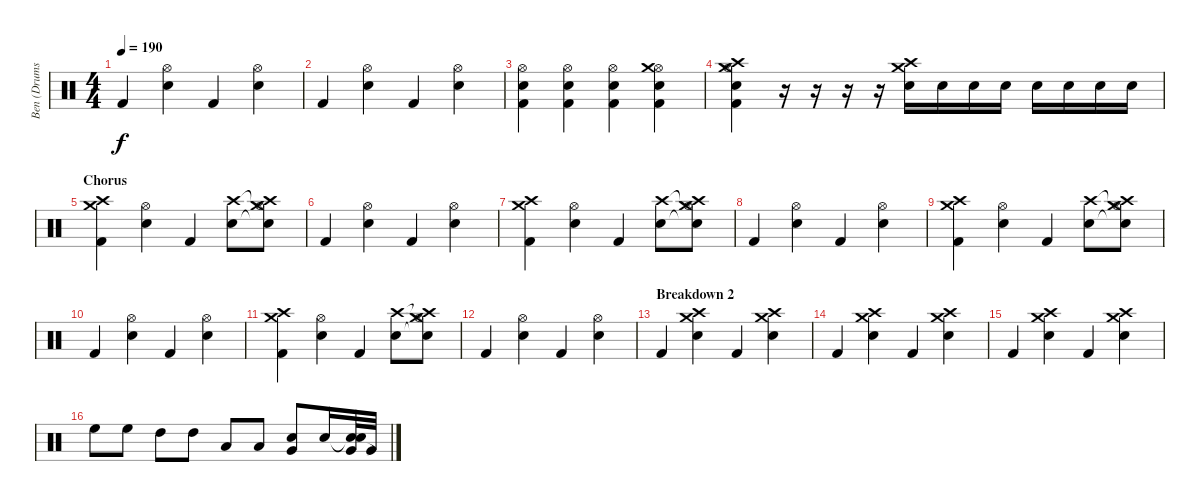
\track ("Ben (Drums)" "Ben (Drums") {instrument percussion}
\staff {score}
\articulation defaults
\ts (4 4)
\tempo 190
\clef neutral
\ks c "Kick (hit) 2".4{dy f}
("Snare (hit) 2" "Hi-Hat (open)").4 "Kick (hit) 2".4 ("Snare (hit) 2" "Hi-Hat (open)").4 |
"Kick (hit) 2".4 ("Snare (hit) 2" "Hi-Hat (open)").4 "Kick (hit) 2".4 ("Snare (hit) 2" "Hi-Hat (open)").4 |
("Kick (hit) 2" "Hi-Hat (open)" "Snare (hit) 2").4 ("Snare (hit) 2" "Hi-Hat (open)" "Kick (hit) 2").4 ("Kick (hit) 2" "Hi-Hat (open)" "Snare (hit) 2").4 ("Snare (hit) 2" "Hi-Hat (open)" "Kick (hit) 2" "Crash medium (hit)").4 |
("Kick (hit) 2" "Hi-Hat (open)" "Snare (hit) 2" "Crash medium (hit)" "Crash high (hit)").4{volume 16} r.16 r.16 r.16 r.16 ("Snare (hit) 2" "Crash high (hit)" "Crash medium (hit)").16 "Snare (hit) 2".16 "Snare (hit) 2".16 "Snare (hit) 2".16 "Snare (hit) 2".16 "Snare (hit) 2".16 "Snare (hit) 2".16 "Snare (hit) 2".16 |
\section ("" "Chorus ")
("Kick (hit) 2" "Crash medium (hit)" "Crash high (hit)").4 ("Snare (hit) 2" "Hi-Hat (open)").4 "Kick (hit) 2".4 ("Snare (hit) 2" "Crash high (hit)").8 ("Snare (hit) 2"{t} "Hi-Hat (open)"{t} "Crash medium (hit)" "Crash high (hit)").8 |
"Kick (hit) 2".4 ("Snare (hit) 2" "Hi-Hat (open)").4 "Kick (hit) 2".4 ("Snare (hit) 2" "Hi-Hat (open)").4 |
("Kick (hit) 2" "Crash medium (hit)" "Crash high (hit)").4 ("Snare (hit) 2" "Hi-Hat (open)").4 "Kick (hit) 2".4 ("Snare (hit) 2" "Crash high (hit)").8 ("Snare (hit) 2"{t} "Hi-Hat (open)"{t} "Crash medium (hit)" "Crash high (hit)").8 |
"Kick (hit) 2".4 ("Snare (hit) 2" "Hi-Hat (open)").4 "Kick (hit) 2".4 ("Snare (hit) 2" "Hi-Hat (open)").4 |
("Kick (hit) 2" "Crash medium (hit)" "Crash high (hit)").4 ("Snare (hit) 2" "Hi-Hat (open)").4 "Kick (hit) 2".4 ("Snare (hit) 2" "Crash high (hit)").8 ("Snare (hit) 2"{t} "Hi-Hat (open)"{t} "Crash medium (hit)" "Crash high (hit)").8 |
"Kick (hit) 2".4 ("Snare (hit) 2" "Hi-Hat (open)").4 "Kick (hit) 2".4 ("Snare (hit) 2" "Hi-Hat (open)").4 |
("Kick (hit) 2" "Crash medium (hit)" "Crash high (hit)").4 ("Snare (hit) 2" "Hi-Hat (open)").4 "Kick (hit) 2".4 ("Snare (hit) 2" "Crash high (hit)").8 ("Snare (hit) 2"{t} "Hi-Hat (open)"{t} "Crash medium (hit)" "Crash high (hit)").8 |
"Kick (hit) 2".4 ("Snare (hit) 2" "Hi-Hat (open)").4 "Kick (hit) 2".4 ("Snare (hit) 2" "Hi-Hat (open)").4 |
\section ("" "Breakdown 2")
"Kick (hit) 2".4 ("Snare (hit) 2" "Crash medium (hit)" "Crash high (hit)").4 "Kick (hit) 2".4 ("Snare (hit) 2" "Crash medium (hit)" "Crash high (hit)").4 |
"Kick (hit) 2".4 ("Snare (hit) 2" "Crash medium (hit)" "Crash high (hit)").4 "Kick (hit) 2".4 ("Snare (hit) 2" "Crash medium (hit)" "Crash high (hit)").4 |
"Kick (hit) 2".4 ("Snare (hit) 2" "Crash medium (hit)" "Crash high (hit)").4 "Kick (hit) 2".4 ("Snare (hit) 2" "Crash medium (hit)" "Crash high (hit)").4 |
"High Floor Tom (hit)".8 "High Floor Tom (hit)".8 "High Tom (hit)".8 "High Tom (hit)".8 "Low Tom (hit)".8 "Low Tom (hit)".8 ("Very Low Tom (hit)" "Snare (hit) 2").8 "Snare (hit) 2".16 ("Snare (hit)"{t} "Very Low Tom (hit)" "Snare (hit) 2").32 "Very Low Tom (hit)"{t}.32
